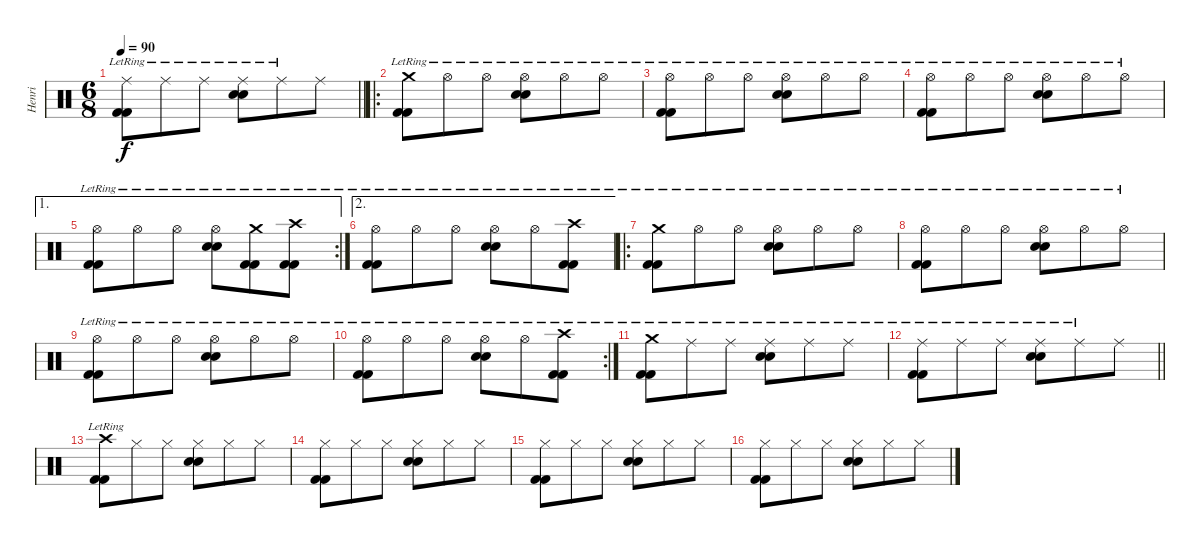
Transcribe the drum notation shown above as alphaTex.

\track ("Henri" "Henri") {instrument percussion}
\staff {score}
\articulation defaults
\ts (6 8)
\tempo 90
\clef neutral
\barLineRight lightlight
\ks c
("Ride (middle)"{lr} "Kick (hit) 2" "Kick (hit) 2").8{dy f} "Ride (middle)"{lr}.8 "Ride (middle)"{lr}.8 ("Ride (middle)"{lr} "Electric Snare (hit)" "Electric Snare (hit)").8 "Ride (middle)"{lr}.8 "Ride (middle)".8 |
\ro
("Crash medium (hit)"{lr} "Kick (hit) 2" "Kick (hit) 2").8 "Hi-Hat (open)"{lr}.8 "Hi-Hat (open)"{lr}.8 ("Hi-Hat (open)"{lr} "Electric Snare (hit)" "Electric Snare (hit)").8 "Hi-Hat (open)"{lr}.8 "Hi-Hat (open)"{lr}.8 |
("Hi-Hat (open)"{lr} "Kick (hit) 2" "Kick (hit) 2").8 "Hi-Hat (open)"{lr}.8 "Hi-Hat (open)"{lr}.8 ("Hi-Hat (open)"{lr} "Electric Snare (hit)" "Electric Snare (hit)").8 "Hi-Hat (open)"{lr}.8 "Hi-Hat (open)"{lr}.8 |
("Hi-Hat (open)"{lr} "Kick (hit) 2" "Kick (hit) 2").8 "Hi-Hat (open)"{lr}.8 "Hi-Hat (open)"{lr}.8 ("Hi-Hat (open)"{lr} "Electric Snare (hit)" "Electric Snare (hit)").8 "Hi-Hat (open)"{lr}.8 "Hi-Hat (open)"{lr}.8 |
\ae 1
\rc 2
("Hi-Hat (open)"{lr} "Kick (hit) 2" "Kick (hit) 2").8 "Hi-Hat (open)"{lr}.8 "Hi-Hat (open)"{lr}.8 ("Hi-Hat (open)"{lr} "Electric Snare (hit)" "Electric Snare (hit)").8 ("Crash medium (hit)"{lr} "Kick (hit) 2" "Kick (hit) 2").8 ("Crash high (hit)"{lr} "Kick (hit) 2" "Kick (hit) 2").8 |
\ae 2
("Hi-Hat (open)"{lr} "Kick (hit) 2" "Kick (hit) 2").8 "Hi-Hat (open)"{lr}.8 "Hi-Hat (open)"{lr}.8 ("Hi-Hat (open)"{lr} "Electric Snare (hit)" "Electric Snare (hit)").8 "Hi-Hat (open)"{lr}.8 ("Crash high (hit)"{lr} "Kick (hit) 2" "Kick (hit) 2").8 |
\ro
("Crash medium (hit)"{lr} "Kick (hit) 2" "Kick (hit) 2").8 "Hi-Hat (open)"{lr}.8 "Hi-Hat (open)"{lr}.8 ("Hi-Hat (open)"{lr} "Electric Snare (hit)" "Electric Snare (hit)").8 "Hi-Hat (open)"{lr}.8 "Hi-Hat (open)"{lr}.8 |
("Hi-Hat (open)"{lr} "Kick (hit) 2" "Kick (hit) 2").8 "Hi-Hat (open)"{lr}.8 "Hi-Hat (open)"{lr}.8 ("Hi-Hat (open)"{lr} "Electric Snare (hit)" "Electric Snare (hit)").8 "Hi-Hat (open)"{lr}.8 "Hi-Hat (open)"{lr}.8 |
("Hi-Hat (open)"{lr} "Kick (hit) 2" "Kick (hit) 2").8 "Hi-Hat (open)"{lr}.8 "Hi-Hat (open)"{lr}.8 ("Hi-Hat (open)"{lr} "Electric Snare (hit)" "Electric Snare (hit)").8 "Hi-Hat (open)"{lr}.8 "Hi-Hat (open)"{lr}.8 |
\rc 2
("Hi-Hat (open)"{lr} "Kick (hit) 2" "Kick (hit) 2").8 "Hi-Hat (open)"{lr}.8 "Hi-Hat (open)"{lr}.8 ("Hi-Hat (open)"{lr} "Electric Snare (hit)" "Electric Snare (hit)").8 "Hi-Hat (open)"{lr}.8 ("Crash high (hit)"{lr} "Kick (hit) 2" "Kick (hit) 2").8 |
("Crash medium (hit)"{lr} "Kick (hit) 2" "Kick (hit) 2").8 "Ride (middle)"{lr}.8 "Ride (middle)"{lr}.8 ("Ride (middle)"{lr} "Electric Snare (hit)" "Electric Snare (hit)").8 "Ride (middle)"{lr}.8 "Ride (middle)"{lr}.8 |
\barLineRight lightlight
("Ride (middle)"{lr} "Kick (hit) 2" "Kick (hit) 2").8 "Ride (middle)"{lr}.8 "Ride (middle)"{lr}.8 ("Ride (middle)"{lr} "Electric Snare (hit)" "Electric Snare (hit)").8 "Ride (middle)"{lr}.8 "Ride (middle)".8 |
("Crash high (hit)"{lr} "Kick (hit) 2" "Kick (hit) 2").8 "Hi-Hat (closed)".8 "Hi-Hat (closed)".8 ("Hi-Hat (closed)" "Electric Snare (hit)" "Electric Snare (hit)").8 "Hi-Hat (closed)".8 "Hi-Hat (closed)".8 |
("Hi-Hat (closed)" "Kick (hit) 2" "Kick (hit) 2").8 "Hi-Hat (closed)".8 "Hi-Hat (closed)".8 ("Hi-Hat (closed)" "Electric Snare (hit)" "Electric Snare (hit)").8 "Hi-Hat (closed)".8 "Hi-Hat (closed)".8 |
("Hi-Hat (closed)" "Kick (hit) 2" "Kick (hit) 2").8 "Hi-Hat (closed)".8 "Hi-Hat (closed)".8 ("Hi-Hat (closed)" "Electric Snare (hit)" "Electric Snare (hit)").8 "Hi-Hat (closed)".8 "Hi-Hat (closed)".8 |
("Hi-Hat (closed)" "Kick (hit) 2" "Kick (hit) 2").8 "Hi-Hat (closed)".8 "Hi-Hat (closed)".8 ("Hi-Hat (closed)" "Electric Snare (hit)" "Electric Snare (hit)").8 "Hi-Hat (closed)".8 "Hi-Hat (closed)".8
